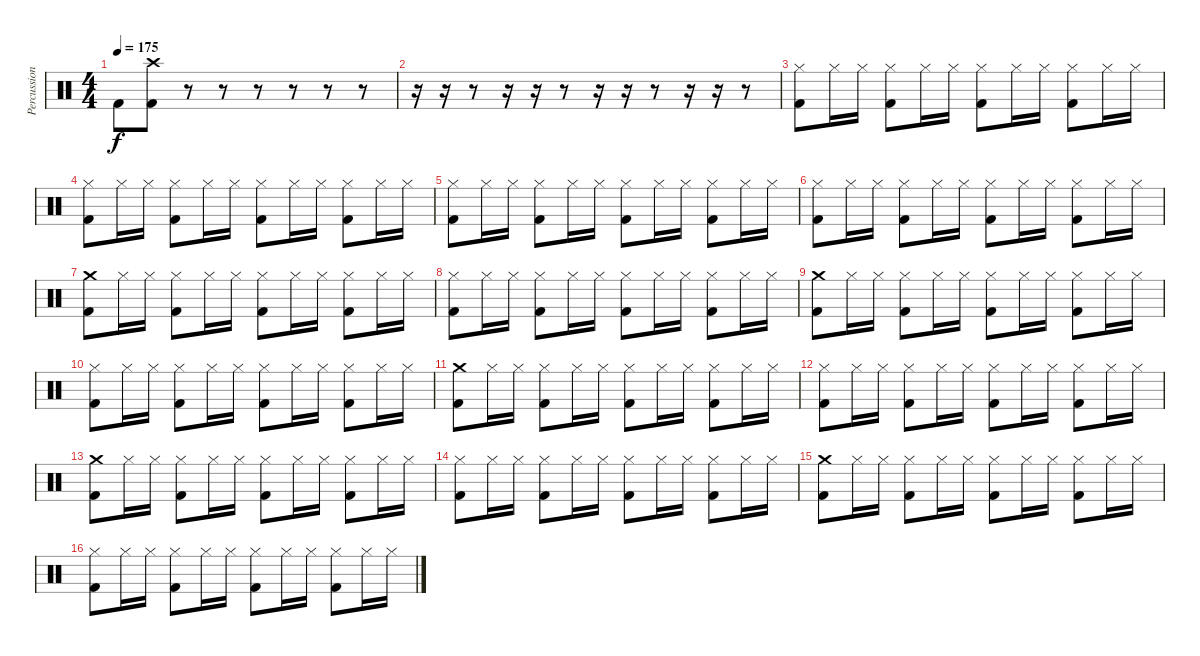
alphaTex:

\track ("Percussions" "Percussion") {instrument percussion}
\staff {score}
\articulation defaults
\ts (4 4)
\tempo 175
\clef neutral
\ks c "Kick (hit) 2".8{dy f}
("Crash high (hit)" "Kick (hit) 2").8 r.8 r.8 r.8 r.8 r.8 r.8 |
r.16 r.16 r.8 r.16 r.16 r.8 r.16 r.16 r.8 r.16 r.16 r.8 |
("Hi-Hat (closed)" "Kick (hit) 2").8 "Hi-Hat (closed)".16 "Hi-Hat (closed)".16 ("Hi-Hat (closed)" "Kick (hit) 2").8 "Hi-Hat (closed)".16 "Hi-Hat (closed)".16 ("Hi-Hat (closed)" "Kick (hit) 2").8 "Hi-Hat (closed)".16 "Hi-Hat (closed)".16 ("Hi-Hat (closed)" "Kick (hit) 2").8 "Hi-Hat (closed)".16 "Hi-Hat (closed)".16 |
("Hi-Hat (closed)" "Kick (hit) 2").8 "Hi-Hat (closed)".16 "Hi-Hat (closed)".16 ("Hi-Hat (closed)" "Kick (hit) 2").8 "Hi-Hat (closed)".16 "Hi-Hat (closed)".16 ("Hi-Hat (closed)" "Kick (hit) 2").8 "Hi-Hat (closed)".16 "Hi-Hat (closed)".16 ("Hi-Hat (closed)" "Kick (hit) 2").8 "Hi-Hat (closed)".16 "Hi-Hat (closed)".16 |
("Hi-Hat (closed)" "Kick (hit) 2").8 "Hi-Hat (closed)".16 "Hi-Hat (closed)".16 ("Hi-Hat (closed)" "Kick (hit) 2").8 "Hi-Hat (closed)".16 "Hi-Hat (closed)".16 ("Hi-Hat (closed)" "Kick (hit) 2").8 "Hi-Hat (closed)".16 "Hi-Hat (closed)".16 ("Hi-Hat (closed)" "Kick (hit) 2").8 "Hi-Hat (closed)".16 "Hi-Hat (closed)".16 |
("Hi-Hat (closed)" "Kick (hit) 2").8 "Hi-Hat (closed)".16 "Hi-Hat (closed)".16 ("Hi-Hat (closed)" "Kick (hit) 2").8 "Hi-Hat (closed)".16 "Hi-Hat (closed)".16 ("Hi-Hat (closed)" "Kick (hit) 2").8 "Hi-Hat (closed)".16 "Hi-Hat (closed)".16 ("Hi-Hat (closed)" "Kick (hit) 2").8 "Hi-Hat (closed)".16 "Hi-Hat (closed)".16 |
("Crash medium (hit)" "Kick (hit) 2").8 "Hi-Hat (closed)".16 "Hi-Hat (closed)".16 ("Hi-Hat (closed)" "Kick (hit) 2").8 "Hi-Hat (closed)".16 "Hi-Hat (closed)".16 ("Hi-Hat (closed)" "Kick (hit) 2").8 "Hi-Hat (closed)".16 "Hi-Hat (closed)".16 ("Hi-Hat (closed)" "Kick (hit) 2").8 "Hi-Hat (closed)".16 "Hi-Hat (closed)".16 |
("Hi-Hat (closed)" "Kick (hit) 2").8 "Hi-Hat (closed)".16 "Hi-Hat (closed)".16 ("Hi-Hat (closed)" "Kick (hit) 2").8 "Hi-Hat (closed)".16 "Hi-Hat (closed)".16 ("Hi-Hat (closed)" "Kick (hit) 2").8 "Hi-Hat (closed)".16 "Hi-Hat (closed)".16 ("Hi-Hat (closed)" "Kick (hit) 2").8 "Hi-Hat (closed)".16 "Hi-Hat (closed)".16 |
("Crash medium (hit)" "Kick (hit) 2").8 "Hi-Hat (closed)".16 "Hi-Hat (closed)".16 ("Hi-Hat (closed)" "Kick (hit) 2").8 "Hi-Hat (closed)".16 "Hi-Hat (closed)".16 ("Hi-Hat (closed)" "Kick (hit) 2").8 "Hi-Hat (closed)".16 "Hi-Hat (closed)".16 ("Hi-Hat (closed)" "Kick (hit) 2").8 "Hi-Hat (closed)".16 "Hi-Hat (closed)".16 |
("Hi-Hat (closed)" "Kick (hit) 2").8 "Hi-Hat (closed)".16 "Hi-Hat (closed)".16 ("Hi-Hat (closed)" "Kick (hit) 2").8 "Hi-Hat (closed)".16 "Hi-Hat (closed)".16 ("Hi-Hat (closed)" "Kick (hit) 2").8 "Hi-Hat (closed)".16 "Hi-Hat (closed)".16 ("Hi-Hat (closed)" "Kick (hit) 2").8 "Hi-Hat (closed)".16 "Hi-Hat (closed)".16 |
("Crash medium (hit)" "Kick (hit) 2").8 "Hi-Hat (closed)".16 "Hi-Hat (closed)".16 ("Hi-Hat (closed)" "Kick (hit) 2").8 "Hi-Hat (closed)".16 "Hi-Hat (closed)".16 ("Hi-Hat (closed)" "Kick (hit) 2").8 "Hi-Hat (closed)".16 "Hi-Hat (closed)".16 ("Hi-Hat (closed)" "Kick (hit) 2").8 "Hi-Hat (closed)".16 "Hi-Hat (closed)".16 |
("Hi-Hat (closed)" "Kick (hit) 2").8 "Hi-Hat (closed)".16 "Hi-Hat (closed)".16 ("Hi-Hat (closed)" "Kick (hit) 2").8 "Hi-Hat (closed)".16 "Hi-Hat (closed)".16 ("Hi-Hat (closed)" "Kick (hit) 2").8 "Hi-Hat (closed)".16 "Hi-Hat (closed)".16 ("Hi-Hat (closed)" "Kick (hit) 2").8 "Hi-Hat (closed)".16 "Hi-Hat (closed)".16 |
("Crash medium (hit)" "Kick (hit) 2").8 "Hi-Hat (closed)".16 "Hi-Hat (closed)".16 ("Hi-Hat (closed)" "Kick (hit) 2").8 "Hi-Hat (closed)".16 "Hi-Hat (closed)".16 ("Hi-Hat (closed)" "Kick (hit) 2").8 "Hi-Hat (closed)".16 "Hi-Hat (closed)".16 ("Hi-Hat (closed)" "Kick (hit) 2").8 "Hi-Hat (closed)".16 "Hi-Hat (closed)".16 |
("Hi-Hat (closed)" "Kick (hit) 2").8 "Hi-Hat (closed)".16 "Hi-Hat (closed)".16 ("Hi-Hat (closed)" "Kick (hit) 2").8 "Hi-Hat (closed)".16 "Hi-Hat (closed)".16 ("Hi-Hat (closed)" "Kick (hit) 2").8 "Hi-Hat (closed)".16 "Hi-Hat (closed)".16 ("Hi-Hat (closed)" "Kick (hit) 2").8 "Hi-Hat (closed)".16 "Hi-Hat (closed)".16 |
("Crash medium (hit)" "Kick (hit) 2").8 "Hi-Hat (closed)".16 "Hi-Hat (closed)".16 ("Hi-Hat (closed)" "Kick (hit) 2").8 "Hi-Hat (closed)".16 "Hi-Hat (closed)".16 ("Hi-Hat (closed)" "Kick (hit) 2").8 "Hi-Hat (closed)".16 "Hi-Hat (closed)".16 ("Hi-Hat (closed)" "Kick (hit) 2").8 "Hi-Hat (closed)".16 "Hi-Hat (closed)".16 |
("Hi-Hat (closed)" "Kick (hit) 2").8 "Hi-Hat (closed)".16 "Hi-Hat (closed)".16 ("Hi-Hat (closed)" "Kick (hit) 2").8 "Hi-Hat (closed)".16 "Hi-Hat (closed)".16 ("Hi-Hat (closed)" "Kick (hit) 2").8 "Hi-Hat (closed)".16 "Hi-Hat (closed)".16 ("Hi-Hat (closed)" "Kick (hit) 2").8 "Hi-Hat (closed)".16 "Hi-Hat (closed)".16
